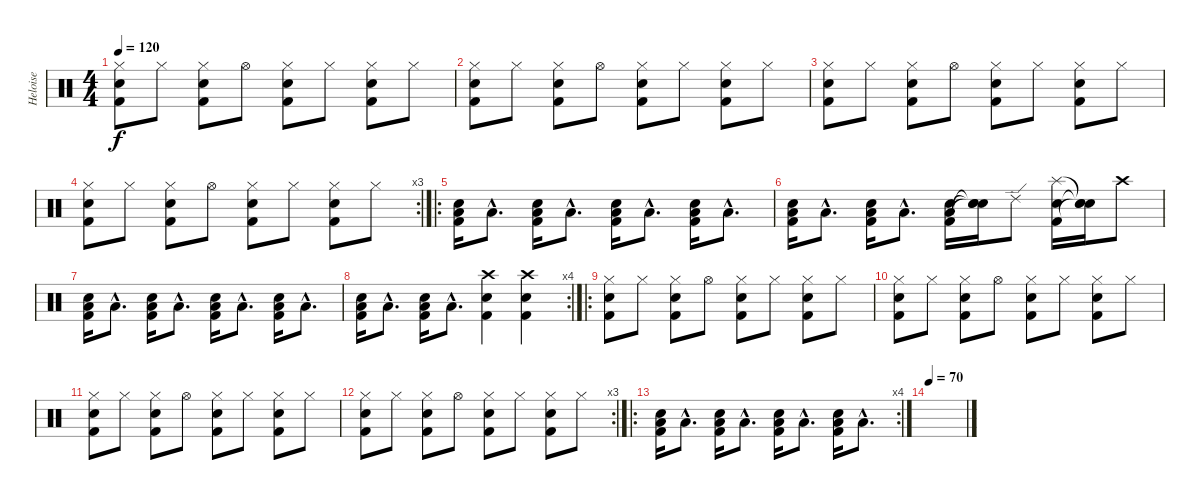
\track ("Heloise" "Heloise") {instrument percussion}
\staff {score}
\articulation defaults
\ts (4 4)
\tempo 120
\clef neutral
\ks c
("Hi-Hat (closed)" "Snare (hit) 2" "Kick (hit) 2").8{dy f} "Hi-Hat (closed)".8 ("Hi-Hat (closed)" "Snare (hit) 2" "Kick (hit) 2").8 "Hi-Hat (open)".8 ("Hi-Hat (closed)" "Snare (hit) 2" "Kick (hit) 2").8 "Hi-Hat (closed)".8 ("Hi-Hat (closed)" "Snare (hit) 2" "Kick (hit) 2").8 "Hi-Hat (closed)".8 |
("Hi-Hat (closed)" "Snare (hit) 2" "Kick (hit) 2").8 "Hi-Hat (closed)".8 ("Hi-Hat (closed)" "Snare (hit) 2" "Kick (hit) 2").8 "Hi-Hat (open)".8 ("Hi-Hat (closed)" "Snare (hit) 2" "Kick (hit) 2").8 "Hi-Hat (closed)".8 ("Hi-Hat (closed)" "Snare (hit) 2" "Kick (hit) 2").8 "Hi-Hat (closed)".8 |
("Hi-Hat (closed)" "Snare (hit) 2" "Kick (hit) 2").8 "Hi-Hat (closed)".8 ("Hi-Hat (closed)" "Snare (hit) 2" "Kick (hit) 2").8 "Hi-Hat (open)".8 ("Hi-Hat (closed)" "Snare (hit) 2" "Kick (hit) 2").8 "Hi-Hat (closed)".8 ("Hi-Hat (closed)" "Snare (hit) 2" "Kick (hit) 2").8 "Hi-Hat (closed)".8 |
\rc 3
("Hi-Hat (closed)" "Snare (hit) 2" "Kick (hit) 2").8 "Hi-Hat (closed)".8 ("Hi-Hat (closed)" "Snare (hit) 2" "Kick (hit) 2").8 "Hi-Hat (open)".8 ("Hi-Hat (closed)" "Snare (hit) 2" "Kick (hit) 2").8 "Hi-Hat (closed)".8 ("Hi-Hat (closed)" "Snare (hit) 2" "Kick (hit) 2").8 "Hi-Hat (closed)".8 |
\ro
("Low Floor Tom (hit)" "Snare (hit) 2" "Kick (hit) 2").16 "Low Floor Tom (hit)"{hac}.8{d} ("Low Floor Tom (hit)" "Snare (hit) 2" "Kick (hit) 2").16 "Low Floor Tom (hit)"{hac}.8{d} ("Low Floor Tom (hit)" "Snare (hit) 2" "Kick (hit) 2").16 "Low Floor Tom (hit)"{hac}.8{d} ("Low Floor Tom (hit)" "Snare (hit) 2" "Kick (hit) 2").16 "Low Floor Tom (hit)"{hac}.8{d} |
("Low Floor Tom (hit)" "Snare (hit) 2" "Kick (hit) 2").16 "Low Floor Tom (hit)"{hac}.8{d} ("Low Floor Tom (hit)" "Snare (hit) 2" "Kick (hit) 2").16 "Low Floor Tom (hit)"{hac}.8{d} ("Low Floor Tom (hit)" "Snare (hit) 2" "Kick (hit) 2").16 ("Snare (hit)"{t} "Snare (hit)"{t} "Snare (hit)"{t}).16 "Ride (edge) 2".8 ("Splash (hit)" "Snare (hit) 2" "Kick (hit) 2").16 ("Snare (hit)"{t} "Snare (hit)"{t} "Snare (hit)"{t}).16 "Crash high (hit)".8 |
("Low Floor Tom (hit)" "Snare (hit) 2" "Kick (hit) 2").16 "Low Floor Tom (hit)"{hac}.8{d} ("Low Floor Tom (hit)" "Snare (hit) 2" "Kick (hit) 2").16 "Low Floor Tom (hit)"{hac}.8{d} ("Low Floor Tom (hit)" "Snare (hit) 2" "Kick (hit) 2").16 "Low Floor Tom (hit)"{hac}.8{d} ("Low Floor Tom (hit)" "Snare (hit) 2" "Kick (hit) 2").16 "Low Floor Tom (hit)"{hac}.8{d} |
\rc 4
("Low Floor Tom (hit)" "Snare (hit) 2" "Kick (hit) 2").16 "Low Floor Tom (hit)"{hac}.8{d} ("Low Floor Tom (hit)" "Snare (hit) 2" "Kick (hit) 2").16 "Low Floor Tom (hit)"{hac}.8{d} ("Crash high (hit)" "Snare (hit) 2" "Kick (hit) 2").4 ("Crash high (hit)" "Snare (hit) 2" "Kick (hit) 2").4 |
\ro
("Hi-Hat (closed)" "Snare (hit) 2" "Kick (hit) 2").8 "Hi-Hat (closed)".8 ("Hi-Hat (closed)" "Snare (hit) 2" "Kick (hit) 2").8 "Hi-Hat (open)".8 ("Hi-Hat (closed)" "Snare (hit) 2" "Kick (hit) 2").8 "Hi-Hat (closed)".8 ("Hi-Hat (closed)" "Snare (hit) 2" "Kick (hit) 2").8 "Hi-Hat (closed)".8 |
("Hi-Hat (closed)" "Snare (hit) 2" "Kick (hit) 2").8 "Hi-Hat (closed)".8 ("Hi-Hat (closed)" "Snare (hit) 2" "Kick (hit) 2").8 "Hi-Hat (open)".8 ("Hi-Hat (closed)" "Snare (hit) 2" "Kick (hit) 2").8 "Hi-Hat (closed)".8 ("Hi-Hat (closed)" "Snare (hit) 2" "Kick (hit) 2").8 "Hi-Hat (closed)".8 |
("Hi-Hat (closed)" "Snare (hit) 2" "Kick (hit) 2").8 "Hi-Hat (closed)".8 ("Hi-Hat (closed)" "Snare (hit) 2" "Kick (hit) 2").8 "Hi-Hat (open)".8 ("Hi-Hat (closed)" "Snare (hit) 2" "Kick (hit) 2").8 "Hi-Hat (closed)".8 ("Hi-Hat (closed)" "Snare (hit) 2" "Kick (hit) 2").8 "Hi-Hat (closed)".8 |
\rc 3
("Hi-Hat (closed)" "Snare (hit) 2" "Kick (hit) 2").8 "Hi-Hat (closed)".8 ("Hi-Hat (closed)" "Snare (hit) 2" "Kick (hit) 2").8 "Hi-Hat (open)".8 ("Hi-Hat (closed)" "Snare (hit) 2" "Kick (hit) 2").8 "Hi-Hat (closed)".8 ("Hi-Hat (closed)" "Snare (hit) 2" "Kick (hit) 2").8 "Hi-Hat (closed)".8 |
\ro
\rc 4
("Low Floor Tom (hit)" "Snare (hit) 2" "Kick (hit) 2").16 "Low Floor Tom (hit)"{hac}.8{d} ("Low Floor Tom (hit)" "Snare (hit) 2" "Kick (hit) 2").16 "Low Floor Tom (hit)"{hac}.8{d} ("Low Floor Tom (hit)" "Snare (hit) 2" "Kick (hit) 2").16 "Low Floor Tom (hit)"{hac}.8{d} ("Low Floor Tom (hit)" "Snare (hit) 2" "Kick (hit) 2").16 "Low Floor Tom (hit)"{hac}.8{d} |
\tempo 70
